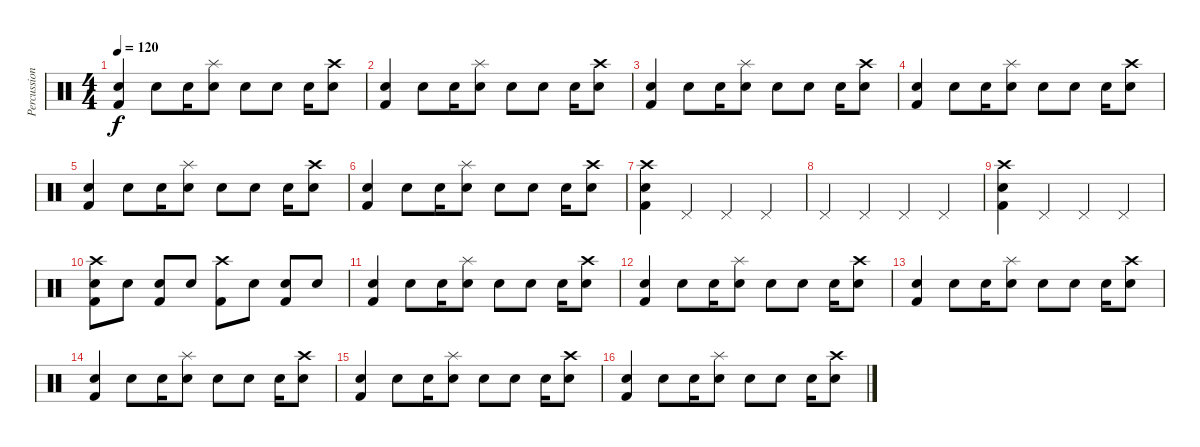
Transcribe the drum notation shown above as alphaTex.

\track ("Percussion" "Percussion") {instrument percussion}
\staff {score}
\articulation defaults
\ts (4 4)
\tempo 120
\clef neutral
\ks c
("Electric Snare (hit)" "Kick (hit) 2").4{dy f} "Electric Snare (hit)".8 "Electric Snare (hit)".16 ("Electric Snare (hit)" "Splash (hit)").8 "Electric Snare (hit)".8 "Electric Snare (hit)".8 "Electric Snare (hit)".16 ("Electric Snare (hit)" "Crash high (hit)").8 |
("Electric Snare (hit)" "Kick (hit) 2").4 "Electric Snare (hit)".8 "Electric Snare (hit)".16 ("Electric Snare (hit)" "Splash (hit)").8 "Electric Snare (hit)".8 "Electric Snare (hit)".8 "Electric Snare (hit)".16 ("Electric Snare (hit)" "Crash high (hit)").8 |
("Electric Snare (hit)" "Kick (hit) 2").4 "Electric Snare (hit)".8 "Electric Snare (hit)".16 ("Electric Snare (hit)" "Splash (hit)").8 "Electric Snare (hit)".8 "Electric Snare (hit)".8 "Electric Snare (hit)".16 ("Electric Snare (hit)" "Crash high (hit)").8 |
("Electric Snare (hit)" "Kick (hit) 2").4 "Electric Snare (hit)".8 "Electric Snare (hit)".16 ("Electric Snare (hit)" "Splash (hit)").8 "Electric Snare (hit)".8 "Electric Snare (hit)".8 "Electric Snare (hit)".16 ("Electric Snare (hit)" "Crash high (hit)").8 |
("Electric Snare (hit)" "Kick (hit) 2").4 "Electric Snare (hit)".8 "Electric Snare (hit)".16 ("Electric Snare (hit)" "Splash (hit)").8 "Electric Snare (hit)".8 "Electric Snare (hit)".8 "Electric Snare (hit)".16 ("Electric Snare (hit)" "Crash high (hit)").8 |
("Electric Snare (hit)" "Kick (hit) 2").4 "Electric Snare (hit)".8 "Electric Snare (hit)".16 ("Electric Snare (hit)" "Splash (hit)").8 "Electric Snare (hit)".8 "Electric Snare (hit)".8 "Electric Snare (hit)".16 ("Electric Snare (hit)" "Crash high (hit)").8 |
("Electric Snare (hit)" "Kick (hit) 2" "Crash high (hit)").4 "Pedal Hi-Hat (hit)".4 "Pedal Hi-Hat (hit)".4 "Pedal Hi-Hat (hit)".4 |
"Pedal Hi-Hat (hit)".4 "Pedal Hi-Hat (hit)".4 "Pedal Hi-Hat (hit)".4 "Pedal Hi-Hat (hit)".4 |
("Electric Snare (hit)" "Kick (hit) 2" "Crash high (hit)").4 "Pedal Hi-Hat (hit)".4 "Pedal Hi-Hat (hit)".4 "Pedal Hi-Hat (hit)".4 |
("Electric Snare (hit)" "Kick (hit) 2" "Crash high (hit)").8 "Electric Snare (hit)".8 ("Electric Snare (hit)" "Kick (hit) 2").8 "Electric Snare (hit)".8 ("Kick (hit) 2" "Crash high (hit)").8 "Electric Snare (hit)".8 ("Electric Snare (hit)" "Kick (hit) 2").8 "Electric Snare (hit)".8 |
("Electric Snare (hit)" "Kick (hit) 2").4 "Electric Snare (hit)".8 "Electric Snare (hit)".16 ("Electric Snare (hit)" "Splash (hit)").8 "Electric Snare (hit)".8 "Electric Snare (hit)".8 "Electric Snare (hit)".16 ("Electric Snare (hit)" "Crash high (hit)").8 |
("Electric Snare (hit)" "Kick (hit) 2").4 "Electric Snare (hit)".8 "Electric Snare (hit)".16 ("Electric Snare (hit)" "Splash (hit)").8 "Electric Snare (hit)".8 "Electric Snare (hit)".8 "Electric Snare (hit)".16 ("Electric Snare (hit)" "Crash high (hit)").8 |
("Electric Snare (hit)" "Kick (hit) 2").4 "Electric Snare (hit)".8 "Electric Snare (hit)".16 ("Electric Snare (hit)" "Splash (hit)").8 "Electric Snare (hit)".8 "Electric Snare (hit)".8 "Electric Snare (hit)".16 ("Electric Snare (hit)" "Crash high (hit)").8 |
("Electric Snare (hit)" "Kick (hit) 2").4 "Electric Snare (hit)".8 "Electric Snare (hit)".16 ("Electric Snare (hit)" "Splash (hit)").8 "Electric Snare (hit)".8 "Electric Snare (hit)".8 "Electric Snare (hit)".16 ("Electric Snare (hit)" "Crash high (hit)").8 |
("Electric Snare (hit)" "Kick (hit) 2").4 "Electric Snare (hit)".8 "Electric Snare (hit)".16 ("Electric Snare (hit)" "Splash (hit)").8 "Electric Snare (hit)".8 "Electric Snare (hit)".8 "Electric Snare (hit)".16 ("Electric Snare (hit)" "Crash high (hit)").8 |
("Electric Snare (hit)" "Kick (hit) 2").4 "Electric Snare (hit)".8 "Electric Snare (hit)".16 ("Electric Snare (hit)" "Splash (hit)").8 "Electric Snare (hit)".8 "Electric Snare (hit)".8 "Electric Snare (hit)".16 ("Electric Snare (hit)" "Crash high (hit)").8
